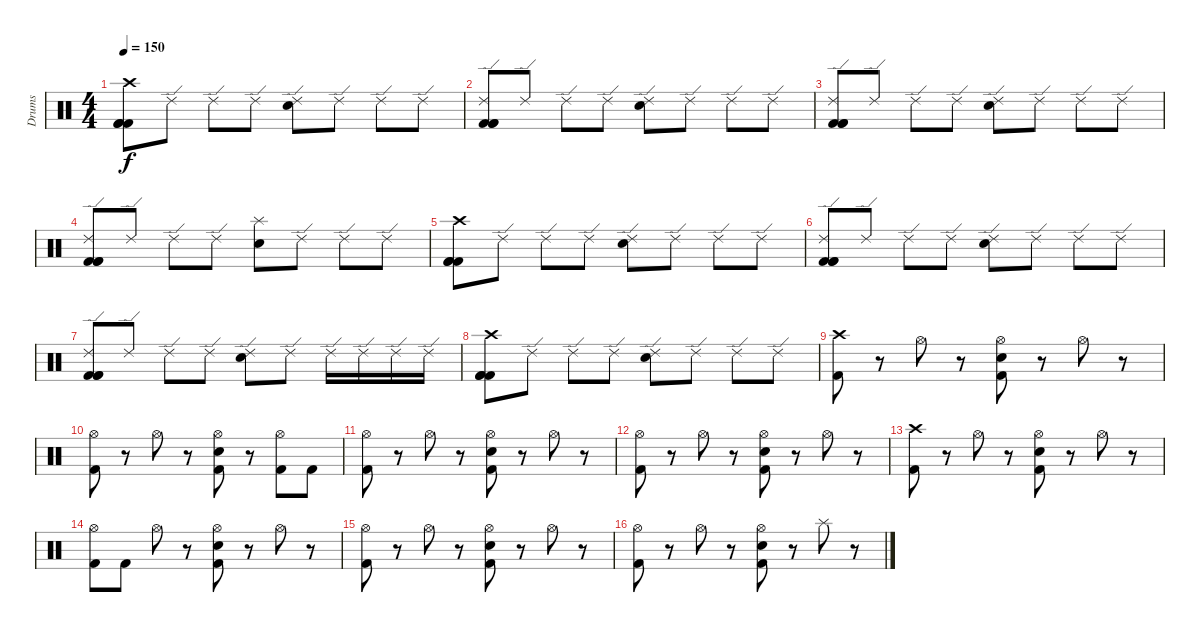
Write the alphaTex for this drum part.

\track ("Drums" "Drums") {instrument percussion}
\staff {score}
\articulation defaults
\ts (4 4)
\tempo 150
\clef neutral
\ks c
("Crash high (hit)" "Kick (hit) 2" "Kick (hit) 2" "Kick (hit) 2").8{dy f} "Ride (edge) 2".8 "Ride (edge) 2".8 "Ride (edge) 2".8 ("Ride (edge) 2" "Snare (hit) 2").8 "Ride (edge) 2".8 "Ride (edge) 2".8 "Ride (edge) 2".8 |
("Ride (edge) 2" "Kick (hit) 2" "Kick (hit) 2" "Kick (hit) 2").8 "Ride (edge) 2".8 "Ride (edge) 2".8 "Ride (edge) 2".8 ("Ride (edge) 2" "Snare (hit) 2").8 "Ride (edge) 2".8 "Ride (edge) 2".8 "Ride (edge) 2".8 |
("Ride (edge) 2" "Kick (hit) 2" "Kick (hit) 2" "Kick (hit) 2").8 "Ride (edge) 2".8 "Ride (edge) 2".8 "Ride (edge) 2".8 ("Ride (edge) 2" "Snare (hit) 2").8 "Ride (edge) 2".8 "Ride (edge) 2".8 "Ride (edge) 2".8 |
("Ride (edge) 2" "Kick (hit) 2" "Kick (hit) 2" "Kick (hit) 2").8 "Ride (edge) 2".8 "Ride (edge) 2".8 "Ride (edge) 2".8 ("Snare (hit) 2" "Splash (hit)").8 "Ride (edge) 2".8 "Ride (edge) 2".8 "Ride (edge) 2".8 |
("Crash high (hit)" "Kick (hit) 2" "Kick (hit) 2" "Kick (hit) 2").8 "Ride (edge) 2".8 "Ride (edge) 2".8 "Ride (edge) 2".8 ("Ride (edge) 2" "Snare (hit) 2").8 "Ride (edge) 2".8 "Ride (edge) 2".8 "Ride (edge) 2".8 |
("Ride (edge) 2" "Kick (hit) 2" "Kick (hit) 2" "Kick (hit) 2").8 "Ride (edge) 2".8 "Ride (edge) 2".8 "Ride (edge) 2".8 ("Ride (edge) 2" "Snare (hit) 2").8 "Ride (edge) 2".8 "Ride (edge) 2".8 "Ride (edge) 2".8 |
("Ride (edge) 2" "Kick (hit) 2" "Kick (hit) 2" "Kick (hit) 2").8 "Ride (edge) 2".8 "Ride (edge) 2".8 "Ride (edge) 2".8 ("Ride (edge) 2" "Snare (hit) 2").8 "Ride (edge) 2".8 "Ride (edge) 2".16 "Ride (edge) 2".16 "Ride (edge) 2".16 "Ride (edge) 2".16 |
("Crash high (hit)" "Kick (hit) 2" "Kick (hit) 2" "Kick (hit) 2").8 "Ride (edge) 2".8 "Ride (edge) 2".8 "Ride (edge) 2".8 ("Ride (edge) 2" "Snare (hit) 2").8 "Ride (edge) 2".8 "Ride (edge) 2".8 "Ride (edge) 2".8 |
("Crash high (hit)" "Kick (hit) 2").8 r.8 "Hi-Hat (open)".8 r.8 ("Snare (hit) 2" "Hi-Hat (open)" "Kick (hit) 2").8 r.8 "Hi-Hat (open)".8 r.8 |
("Hi-Hat (open)" "Kick (hit) 2").8 r.8 "Hi-Hat (open)".8 r.8 ("Snare (hit) 2" "Hi-Hat (open)" "Kick (hit) 2").8 r.8 ("Hi-Hat (open)" "Kick (hit) 2").8 "Kick (hit) 2".8 |
("Hi-Hat (open)" "Kick (hit) 2").8 r.8 "Hi-Hat (open)".8 r.8 ("Snare (hit) 2" "Hi-Hat (open)" "Kick (hit) 2").8 r.8 "Hi-Hat (open)".8 r.8 |
("Hi-Hat (open)" "Kick (hit) 2").8 r.8 "Hi-Hat (open)".8 r.8 ("Snare (hit) 2" "Hi-Hat (open)" "Kick (hit) 2").8 r.8 "Hi-Hat (open)".8 r.8 |
("Crash high (hit)" "Kick (hit) 2").8 r.8 "Hi-Hat (open)".8 r.8 ("Snare (hit) 2" "Hi-Hat (open)" "Kick (hit) 2").8 r.8 "Hi-Hat (open)".8 r.8 |
("Hi-Hat (open)" "Kick (hit) 2").8 "Kick (hit) 2".8 "Hi-Hat (open)".8 r.8 ("Snare (hit) 2" "Hi-Hat (open)" "Kick (hit) 2").8 r.8 "Hi-Hat (open)".8 r.8 |
("Hi-Hat (open)" "Kick (hit) 2").8 r.8 "Hi-Hat (open)".8 r.8 ("Snare (hit) 2" "Hi-Hat (open)" "Kick (hit) 2").8 r.8 "Hi-Hat (open)".8 r.8 |
("Hi-Hat (open)" "Kick (hit) 2").8 r.8 "Hi-Hat (open)".8 r.8 ("Snare (hit) 2" "Hi-Hat (open)" "Kick (hit) 2").8 r.8 "Splash (hit)".8 r.8
